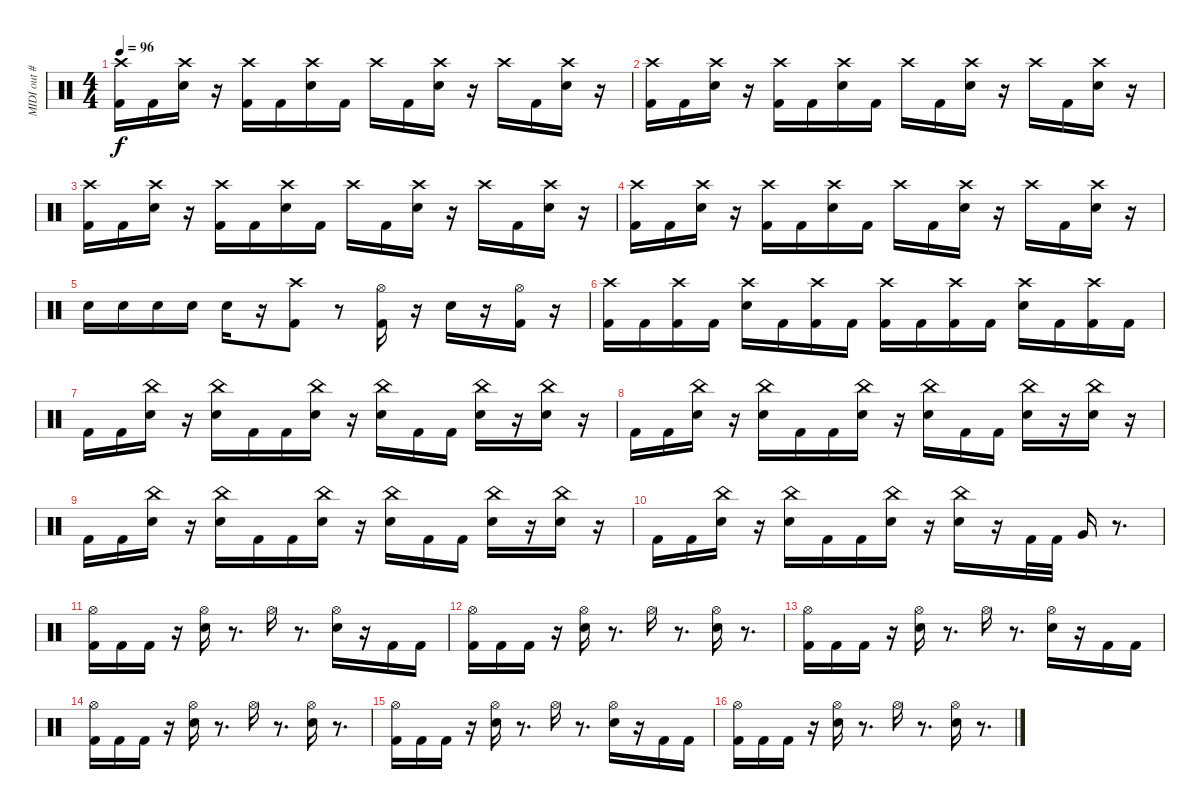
\track ("MIDI out #3" "MIDI out #") {instrument percussion}
\staff {score}
\articulation defaults
\ts (4 4)
\tempo 96
\clef neutral
\ks c
("Crash high (hit)" "Kick (hit) 2").16{dy f} "Kick (hit) 2".16 ("Crash high (hit)" "Snare (hit) 2").16 r.16 ("Crash high (hit)" "Kick (hit) 2").16 "Kick (hit) 2".16 ("Crash high (hit)" "Snare (hit) 2").16 "Kick (hit) 2".16 "Crash high (hit)".16 "Kick (hit) 2".16 ("Crash high (hit)" "Snare (hit) 2").16 r.16 "Crash high (hit)".16 "Kick (hit) 2".16 ("Crash high (hit)" "Snare (hit) 2").16 r.16 |
("Crash high (hit)" "Kick (hit) 2").16 "Kick (hit) 2".16 ("Snare (hit) 2" "Crash high (hit)").16 r.16 ("Crash high (hit)" "Kick (hit) 2").16 "Kick (hit) 2".16 ("Snare (hit) 2" "Crash high (hit)").16 "Kick (hit) 2".16 "Crash high (hit)".16 "Kick (hit) 2".16 ("Snare (hit) 2" "Crash high (hit)").16 r.16 "Crash high (hit)".16 "Kick (hit) 2".16 ("Snare (hit) 2" "Crash high (hit)").16 r.16 |
("Crash high (hit)" "Kick (hit) 2").16 "Kick (hit) 2".16 ("Snare (hit) 2" "Crash high (hit)").16 r.16 ("Crash high (hit)" "Kick (hit) 2").16 "Kick (hit) 2".16 ("Snare (hit) 2" "Crash high (hit)").16 "Kick (hit) 2".16 "Crash high (hit)".16 "Kick (hit) 2".16 ("Snare (hit) 2" "Crash high (hit)").16 r.16 "Crash high (hit)".16 "Kick (hit) 2".16 ("Snare (hit) 2" "Crash high (hit)").16 r.16 |
("Crash high (hit)" "Kick (hit) 2").16 "Kick (hit) 2".16 ("Crash high (hit)" "Snare (hit) 2").16 r.16 ("Crash high (hit)" "Kick (hit) 2").16 "Kick (hit) 2".16 ("Crash high (hit)" "Snare (hit) 2").16 "Kick (hit) 2".16 "Crash high (hit)".16 "Kick (hit) 2".16 ("Crash high (hit)" "Snare (hit) 2").16 r.16 "Crash high (hit)".16 "Kick (hit) 2".16 ("Crash high (hit)" "Snare (hit) 2").16 r.16 |
"Snare (hit) 2".16 "Snare (hit) 2".16 "Snare (hit) 2".16 "Snare (hit) 2".16 "Snare (hit) 2".16 r.16 ("Crash high (hit)" "Kick (hit) 2").8 r.8 ("Hi-Hat (open)" "Kick (hit) 2").16 r.16 "Snare (hit) 2".16 r.16 ("Hi-Hat (open)" "Kick (hit) 2").16 r.16 |
("Crash high (hit)" "Kick (hit) 2").16 "Kick (hit) 2".16 ("Crash high (hit)" "Kick (hit) 2").16 "Kick (hit) 2".16 ("Crash high (hit)" "Snare (hit) 2").16 "Kick (hit) 2".16 ("Crash high (hit)" "Kick (hit) 2").16 "Kick (hit) 2".16 ("Crash high (hit)" "Kick (hit) 2").16 "Kick (hit) 2".16 ("Crash high (hit)" "Kick (hit) 2").16 "Kick (hit) 2".16 ("Crash high (hit)" "Snare (hit) 2").16 "Kick (hit) 2".16 ("Crash high (hit)" "Kick (hit) 2").16 "Kick (hit) 2".16 |
"Kick (hit) 2".16 "Kick (hit) 2".16 ("Snare (hit) 2" "China (hit)").16 r.16 ("China (hit)" "Snare (hit) 2").16 "Kick (hit) 2".16 "Kick (hit) 2".16 ("Snare (hit) 2" "China (hit)").16 r.16 ("Snare (hit) 2" "China (hit)").16 "Kick (hit) 2".16 "Kick (hit) 2".16 ("China (hit)" "Snare (hit) 2").16 r.16 ("China (hit)" "Snare (hit) 2").16 r.16 |
"Kick (hit) 2".16 "Kick (hit) 2".16 ("Snare (hit) 2" "China (hit)").16 r.16 ("China (hit)" "Snare (hit) 2").16 "Kick (hit) 2".16 "Kick (hit) 2".16 ("Snare (hit) 2" "China (hit)").16 r.16 ("China (hit)" "Snare (hit) 2").16 "Kick (hit) 2".16 "Kick (hit) 2".16 ("China (hit)" "Snare (hit) 2").16 r.16 ("Snare (hit) 2" "China (hit)").16 r.16 |
"Kick (hit) 2".16 "Kick (hit) 2".16 ("Snare (hit) 2" "China (hit)").16 r.16 ("Snare (hit) 2" "China (hit)").16 "Kick (hit) 2".16 "Kick (hit) 2".16 ("Snare (hit) 2" "China (hit)").16 r.16 ("China (hit)" "Snare (hit) 2").16 "Kick (hit) 2".16 "Kick (hit) 2".16 ("China (hit)" "Snare (hit) 2").16 r.16 ("China (hit)" "Snare (hit) 2").16 r.16 |
"Kick (hit) 2".16 "Kick (hit) 2".16 ("China (hit)" "Snare (hit) 2").16 r.16 ("China (hit)" "Snare (hit) 2").16 "Kick (hit) 2".16 "Kick (hit) 2".16 ("China (hit)" "Snare (hit) 2").16 r.16 ("Snare (hit) 2" "China (hit)").16 r.16 "Kick (hit) 2".32 "Kick (hit) 2".32 "Very Low Tom (hit)".16 r.8{d} |
("Hi-Hat (open)" "Kick (hit) 2").16 "Kick (hit) 2".16 "Kick (hit) 2".16 r.16 ("Hi-Hat (open)" "Snare (hit) 2").16 r.8{d} "Hi-Hat (open)".16 r.8{d} ("Hi-Hat (open)" "Snare (hit) 2").16 r.16 "Kick (hit) 2".16 "Kick (hit) 2".16 |
("Kick (hit) 2" "Hi-Hat (open)").16 "Kick (hit) 2".16 "Kick (hit) 2".16 r.16 ("Hi-Hat (open)" "Snare (hit) 2").16 r.8{d} "Hi-Hat (open)".16 r.8{d} ("Hi-Hat (open)" "Snare (hit) 2").16 r.8{d} |
("Hi-Hat (open)" "Kick (hit) 2").16 "Kick (hit) 2".16 "Kick (hit) 2".16 r.16 ("Hi-Hat (open)" "Snare (hit) 2").16 r.8{d} "Hi-Hat (open)".16 r.8{d} ("Hi-Hat (open)" "Snare (hit) 2").16 r.16 "Kick (hit) 2".16 "Kick (hit) 2".16 |
("Kick (hit) 2" "Hi-Hat (open)").16 "Kick (hit) 2".16 "Kick (hit) 2".16 r.16 ("Hi-Hat (open)" "Snare (hit) 2").16 r.8{d} "Hi-Hat (open)".16 r.8{d} ("Hi-Hat (open)" "Snare (hit) 2").16 r.8{d} |
("Hi-Hat (open)" "Kick (hit) 2").16 "Kick (hit) 2".16 "Kick (hit) 2".16 r.16 ("Hi-Hat (open)" "Snare (hit) 2").16 r.8{d} "Hi-Hat (open)".16 r.8{d} ("Hi-Hat (open)" "Snare (hit) 2").16 r.16 "Kick (hit) 2".16 "Kick (hit) 2".16 |
("Kick (hit) 2" "Hi-Hat (open)").16 "Kick (hit) 2".16 "Kick (hit) 2".16 r.16 ("Hi-Hat (open)" "Snare (hit) 2").16 r.8{d} "Hi-Hat (open)".16 r.8{d} ("Hi-Hat (open)" "Snare (hit) 2").16 r.8{d}
